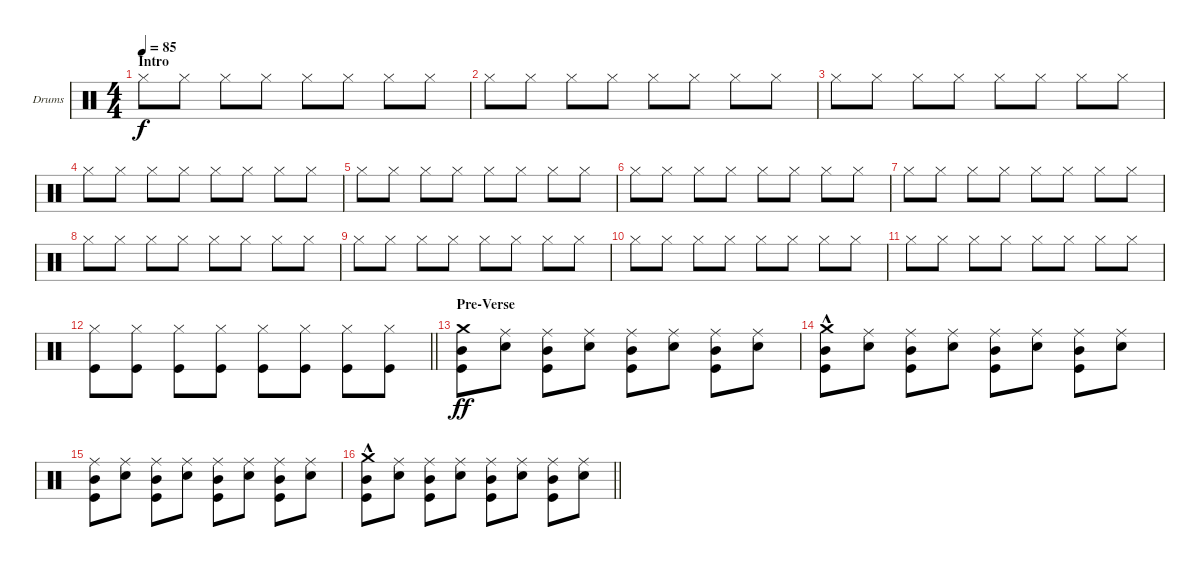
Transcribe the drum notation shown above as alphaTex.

\bracketExtendMode groupsimilarinstruments
\firstSystemTrackNameOrientation horizontal
\otherSystemsTrackNameOrientation horizontal
\track ("Drumkit" "Drums") {instrument percussion}
\staff {score}
\articulation defaults
\ts (4 4)
\beaming (8 2 2 2 2)
\section ("" "Intro")
\tempo 85
\clef neutral
\ks c "Hi-Hat (closed)".8{dy f} "Hi-Hat (closed)".8 "Hi-Hat (closed)".8 "Hi-Hat (closed)".8 "Hi-Hat (closed)".8 "Hi-Hat (closed)".8 "Hi-Hat (closed)".8 "Hi-Hat (closed)".8
|
"Hi-Hat (closed)".8 "Hi-Hat (closed)".8 "Hi-Hat (closed)".8 "Hi-Hat (closed)".8 "Hi-Hat (closed)".8 "Hi-Hat (closed)".8 "Hi-Hat (closed)".8 "Hi-Hat (closed)".8 |
"Hi-Hat (closed)".8 "Hi-Hat (closed)".8 "Hi-Hat (closed)".8 "Hi-Hat (closed)".8 "Hi-Hat (closed)".8 "Hi-Hat (closed)".8 "Hi-Hat (closed)".8 "Hi-Hat (closed)".8 |
"Hi-Hat (closed)".8 "Hi-Hat (closed)".8 "Hi-Hat (closed)".8 "Hi-Hat (closed)".8 "Hi-Hat (closed)".8 "Hi-Hat (closed)".8 "Hi-Hat (closed)".8 "Hi-Hat (closed)".8 |
"Hi-Hat (closed)".8 "Hi-Hat (closed)".8 "Hi-Hat (closed)".8 "Hi-Hat (closed)".8 "Hi-Hat (closed)".8 "Hi-Hat (closed)".8 "Hi-Hat (closed)".8 "Hi-Hat (closed)".8 |
"Hi-Hat (closed)".8 "Hi-Hat (closed)".8 "Hi-Hat (closed)".8 "Hi-Hat (closed)".8 "Hi-Hat (closed)".8 "Hi-Hat (closed)".8 "Hi-Hat (closed)".8 "Hi-Hat (closed)".8 |
"Hi-Hat (closed)".8 "Hi-Hat (closed)".8 "Hi-Hat (closed)".8 "Hi-Hat (closed)".8 "Hi-Hat (closed)".8 "Hi-Hat (closed)".8 "Hi-Hat (closed)".8 "Hi-Hat (closed)".8 |
"Hi-Hat (closed)".8 "Hi-Hat (closed)".8 "Hi-Hat (closed)".8 "Hi-Hat (closed)".8 "Hi-Hat (closed)".8 "Hi-Hat (closed)".8 "Hi-Hat (closed)".8 "Hi-Hat (closed)".8 |
"Hi-Hat (closed)".8 "Hi-Hat (closed)".8 "Hi-Hat (closed)".8 "Hi-Hat (closed)".8 "Hi-Hat (closed)".8 "Hi-Hat (closed)".8 "Hi-Hat (closed)".8 "Hi-Hat (closed)".8 |
"Hi-Hat (closed)".8 "Hi-Hat (closed)".8 "Hi-Hat (closed)".8 "Hi-Hat (closed)".8 "Hi-Hat (closed)".8 "Hi-Hat (closed)".8 "Hi-Hat (closed)".8 "Hi-Hat (closed)".8 |
"Hi-Hat (closed)".8 "Hi-Hat (closed)".8 "Hi-Hat (closed)".8 "Hi-Hat (closed)".8 "Hi-Hat (closed)".8 "Hi-Hat (closed)".8 "Hi-Hat (closed)".8 "Hi-Hat (closed)".8 |
\barLineRight lightlight
("Hi-Hat (closed)" "Kick (hit)").8 ("Hi-Hat (closed)" "Kick (hit)").8 ("Hi-Hat (closed)" "Kick (hit)").8 ("Hi-Hat (closed)" "Kick (hit)").8 ("Hi-Hat (closed)" "Kick (hit)").8 ("Hi-Hat (closed)" "Kick (hit)").8 ("Hi-Hat (closed)" "Kick (hit)").8 ("Hi-Hat (closed)" "Kick (hit)").8 |
\section ("" "Pre-Verse")
("Crash medium (hit)" "Kick (hit)" "Mid Tom (hit)").8{dy ff} ("Ride (middle)" "Snare (hit) 2").8 ("Ride (middle)" "Kick (hit)" "Mid Tom (hit)").8 ("Ride (middle)" "Snare (hit) 2").8 ("Ride (middle)" "Kick (hit)" "Mid Tom (hit)").8 ("Ride (middle)" "Snare (hit) 2").8 ("Ride (middle)" "Kick (hit)" "Mid Tom (hit)").8 ("Ride (middle)" "Snare (hit) 2").8 |
("Crash medium (hit)"{hac} "Kick (hit)" "Mid Tom (hit)").8 ("Ride (middle)" "Snare (hit) 2").8 ("Ride (middle)" "Kick (hit)" "Mid Tom (hit)").8 ("Ride (middle)" "Snare (hit) 2").8 ("Ride (middle)" "Kick (hit)" "Mid Tom (hit)").8 ("Ride (middle)" "Snare (hit) 2").8 ("Ride (middle)" "Kick (hit)" "Mid Tom (hit)").8 ("Ride (middle)" "Snare (hit) 2").8 |
("Kick (hit)" "Mid Tom (hit)" "Ride (middle)").8 ("Ride (middle)" "Snare (hit) 2").8 ("Ride (middle)" "Kick (hit)" "Mid Tom (hit)").8 ("Ride (middle)" "Snare (hit) 2").8 ("Ride (middle)" "Kick (hit)" "Mid Tom (hit)").8 ("Ride (middle)" "Snare (hit) 2").8 ("Ride (middle)" "Kick (hit)" "Mid Tom (hit)").8 ("Ride (middle)" "Snare (hit) 2").8 |
\barLineRight lightlight
("Crash medium (hit)"{hac} "Kick (hit)" "Mid Tom (hit)").8 ("Ride (middle)" "Snare (hit) 2").8 ("Ride (middle)" "Kick (hit)" "Mid Tom (hit)").8 ("Ride (middle)" "Snare (hit) 2").8 ("Ride (middle)" "Kick (hit)" "Mid Tom (hit)").8 ("Ride (middle)" "Snare (hit) 2").8 ("Ride (middle)" "Kick (hit)" "Mid Tom (hit)").8 ("Ride (middle)" "Snare (hit) 2").8
